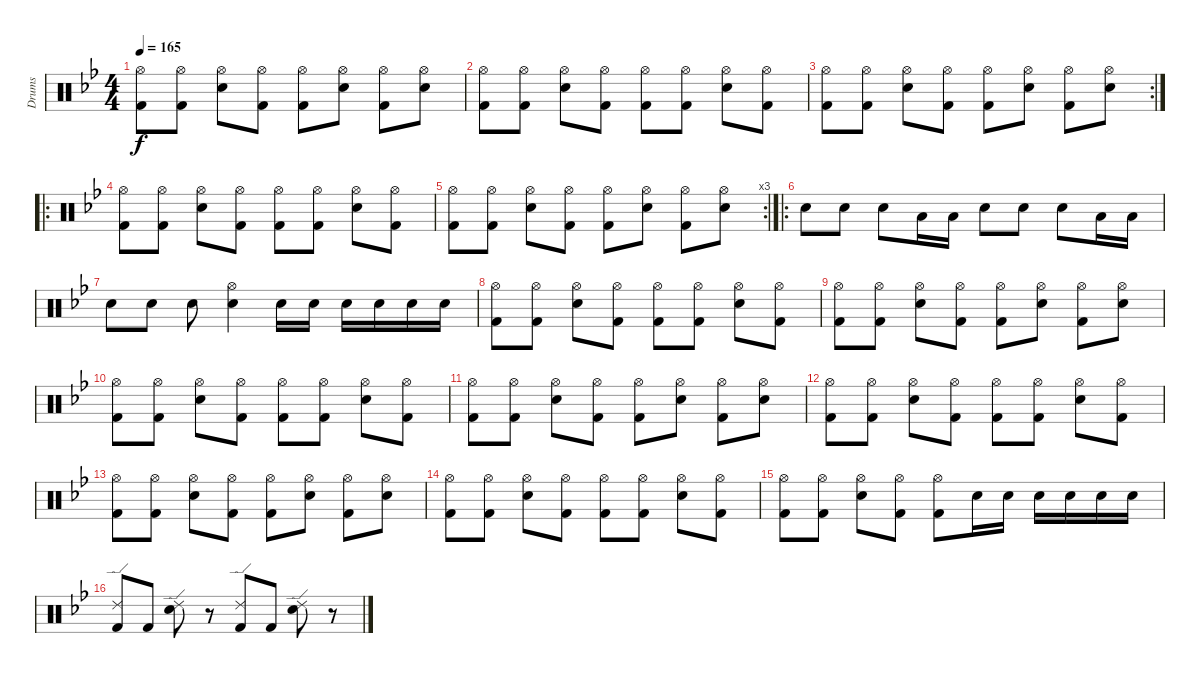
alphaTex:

\track ("Drums" "Drums") {instrument percussion}
\staff {score}
\articulation defaults
\ts (4 4)
\tempo 165
\clef neutral
\ks bb
("Kick (hit) 2" "Hi-Hat (open)").8{dy f} ("Kick (hit) 2" "Hi-Hat (open)").8 ("Electric Snare (hit)" "Hi-Hat (open)").8 ("Kick (hit) 2" "Hi-Hat (open)").8 ("Kick (hit) 2" "Hi-Hat (open)").8 ("Electric Snare (hit)" "Hi-Hat (open)").8 ("Kick (hit) 2" "Hi-Hat (open)").8 ("Electric Snare (hit)" "Hi-Hat (open)").8 |
("Kick (hit) 2" "Hi-Hat (open)").8 ("Kick (hit) 2" "Hi-Hat (open)").8 ("Electric Snare (hit)" "Hi-Hat (open)").8 ("Kick (hit) 2" "Hi-Hat (open)").8 ("Kick (hit) 2" "Hi-Hat (open)").8 ("Kick (hit) 2" "Hi-Hat (open)").8 ("Electric Snare (hit)" "Hi-Hat (open)").8 ("Kick (hit) 2" "Hi-Hat (open)").8 |
\rc 2
("Kick (hit) 2" "Hi-Hat (open)").8 ("Kick (hit) 2" "Hi-Hat (open)").8 ("Electric Snare (hit)" "Hi-Hat (open)").8 ("Kick (hit) 2" "Hi-Hat (open)").8 ("Kick (hit) 2" "Hi-Hat (open)").8 ("Electric Snare (hit)" "Hi-Hat (open)").8 ("Kick (hit) 2" "Hi-Hat (open)").8 ("Electric Snare (hit)" "Hi-Hat (open)").8 |
\ro
("Kick (hit) 2" "Hi-Hat (open)").8 ("Kick (hit) 2" "Hi-Hat (open)").8 ("Electric Snare (hit)" "Hi-Hat (open)").8 ("Kick (hit) 2" "Hi-Hat (open)").8 ("Kick (hit) 2" "Hi-Hat (open)").8 ("Kick (hit) 2" "Hi-Hat (open)").8 ("Electric Snare (hit)" "Hi-Hat (open)").8 ("Kick (hit) 2" "Hi-Hat (open)").8 |
\rc 3
("Kick (hit) 2" "Hi-Hat (open)").8 ("Kick (hit) 2" "Hi-Hat (open)").8 ("Electric Snare (hit)" "Hi-Hat (open)").8 ("Kick (hit) 2" "Hi-Hat (open)").8 ("Kick (hit) 2" "Hi-Hat (open)").8 ("Electric Snare (hit)" "Hi-Hat (open)").8 ("Kick (hit) 2" "Hi-Hat (open)").8 ("Electric Snare (hit)" "Hi-Hat (open)").8 |
\ro "Electric Snare (hit)".8 "Electric Snare (hit)".8 "Electric Snare (hit)".8 "Low Floor Tom (hit)".16 "Low Floor Tom (hit)".16 "Electric Snare (hit)".8 "Electric Snare (hit)".8 "Electric Snare (hit)".8 "Low Floor Tom (hit)".16 "Low Floor Tom (hit)".16
|
"Electric Snare (hit)".8 "Electric Snare (hit)".8 "Electric Snare (hit)".8 ("Electric Snare (hit)" "Hi-Hat (open)").4 "Electric Snare (hit)".16 "Electric Snare (hit)".16 "Electric Snare (hit)".16 "Electric Snare (hit)".16 "Electric Snare (hit)".16 "Electric Snare (hit)".16 |
("Kick (hit) 2" "Hi-Hat (open)").8 ("Kick (hit) 2" "Hi-Hat (open)").8 ("Electric Snare (hit)" "Hi-Hat (open)").8 ("Kick (hit) 2" "Hi-Hat (open)").8 ("Kick (hit) 2" "Hi-Hat (open)").8 ("Kick (hit) 2" "Hi-Hat (open)").8 ("Electric Snare (hit)" "Hi-Hat (open)").8 ("Kick (hit) 2" "Hi-Hat (open)").8 |
("Kick (hit) 2" "Hi-Hat (open)").8 ("Kick (hit) 2" "Hi-Hat (open)").8 ("Electric Snare (hit)" "Hi-Hat (open)").8 ("Kick (hit) 2" "Hi-Hat (open)").8 ("Kick (hit) 2" "Hi-Hat (open)").8 ("Electric Snare (hit)" "Hi-Hat (open)").8 ("Kick (hit) 2" "Hi-Hat (open)").8 ("Electric Snare (hit)" "Hi-Hat (open)").8 |
("Kick (hit) 2" "Hi-Hat (open)").8 ("Kick (hit) 2" "Hi-Hat (open)").8 ("Electric Snare (hit)" "Hi-Hat (open)").8 ("Kick (hit) 2" "Hi-Hat (open)").8 ("Kick (hit) 2" "Hi-Hat (open)").8 ("Kick (hit) 2" "Hi-Hat (open)").8 ("Electric Snare (hit)" "Hi-Hat (open)").8 ("Kick (hit) 2" "Hi-Hat (open)").8 |
("Kick (hit) 2" "Hi-Hat (open)").8 ("Kick (hit) 2" "Hi-Hat (open)").8 ("Electric Snare (hit)" "Hi-Hat (open)").8 ("Kick (hit) 2" "Hi-Hat (open)").8 ("Kick (hit) 2" "Hi-Hat (open)").8 ("Electric Snare (hit)" "Hi-Hat (open)").8 ("Kick (hit) 2" "Hi-Hat (open)").8 ("Electric Snare (hit)" "Hi-Hat (open)").8 |
("Kick (hit) 2" "Hi-Hat (open)").8 ("Kick (hit) 2" "Hi-Hat (open)").8 ("Electric Snare (hit)" "Hi-Hat (open)").8 ("Kick (hit) 2" "Hi-Hat (open)").8 ("Kick (hit) 2" "Hi-Hat (open)").8 ("Kick (hit) 2" "Hi-Hat (open)").8 ("Electric Snare (hit)" "Hi-Hat (open)").8 ("Kick (hit) 2" "Hi-Hat (open)").8 |
("Kick (hit) 2" "Hi-Hat (open)").8 ("Kick (hit) 2" "Hi-Hat (open)").8 ("Electric Snare (hit)" "Hi-Hat (open)").8 ("Kick (hit) 2" "Hi-Hat (open)").8 ("Kick (hit) 2" "Hi-Hat (open)").8 ("Electric Snare (hit)" "Hi-Hat (open)").8 ("Kick (hit) 2" "Hi-Hat (open)").8 ("Electric Snare (hit)" "Hi-Hat (open)").8 |
("Kick (hit) 2" "Hi-Hat (open)").8 ("Kick (hit) 2" "Hi-Hat (open)").8 ("Electric Snare (hit)" "Hi-Hat (open)").8 ("Kick (hit) 2" "Hi-Hat (open)").8 ("Kick (hit) 2" "Hi-Hat (open)").8 ("Kick (hit) 2" "Hi-Hat (open)").8 ("Electric Snare (hit)" "Hi-Hat (open)").8 ("Kick (hit) 2" "Hi-Hat (open)").8 |
("Kick (hit) 2" "Hi-Hat (open)").8 ("Kick (hit) 2" "Hi-Hat (open)").8 ("Electric Snare (hit)" "Hi-Hat (open)").8 ("Kick (hit) 2" "Hi-Hat (open)").8 ("Kick (hit) 2" "Hi-Hat (open)").8 "Electric Snare (hit)".16 "Electric Snare (hit)".16 "Electric Snare (hit)".16 "Electric Snare (hit)".16 "Electric Snare (hit)".16 "Electric Snare (hit)".16 |
("Kick (hit) 2" "Ride (edge) 2").8 "Kick (hit) 2".8 ("Electric Snare (hit)" "Ride (edge) 2").8 r.8 ("Kick (hit) 2" "Ride (edge) 2").8 "Kick (hit) 2".8 ("Electric Snare (hit)" "Ride (edge) 2").8 r.8
